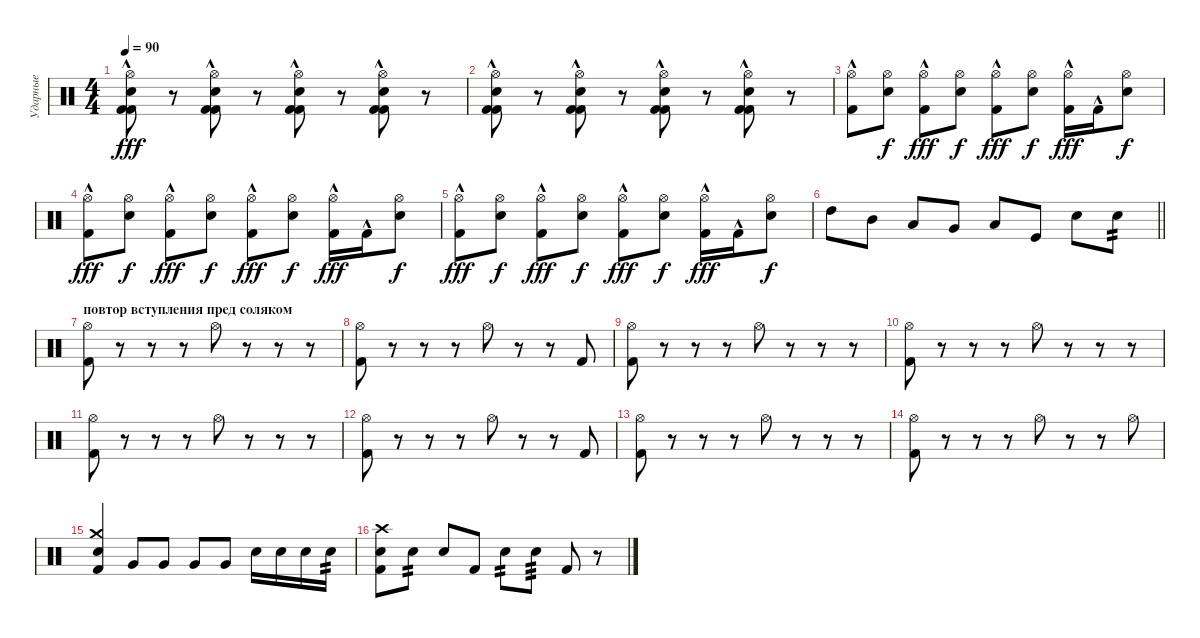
\track ("Ударные" "Ударные") {instrument percussion}
\staff {score}
\articulation defaults
\ts (4 4)
\tempo 90
\clef neutral
\ks c
("Hi-Hat (open)" "Kick (hit) 2"{hac} "Kick (hit) 2" "Snare (hit) 2").8{dy fff} r.8 ("Hi-Hat (open)" "Kick (hit) 2"{hac} "Kick (hit) 2" "Snare (hit) 2").8 r.8 ("Hi-Hat (open)" "Kick (hit) 2"{hac} "Kick (hit) 2" "Snare (hit) 2").8 r.8 ("Hi-Hat (open)" "Kick (hit) 2"{hac} "Kick (hit) 2" "Snare (hit) 2").8 r.8 |
("Hi-Hat (open)" "Kick (hit) 2"{hac} "Kick (hit) 2" "Snare (hit) 2").8 r.8 ("Hi-Hat (open)" "Kick (hit) 2"{hac} "Kick (hit) 2" "Snare (hit) 2").8 r.8 ("Hi-Hat (open)" "Kick (hit) 2"{hac} "Kick (hit) 2" "Snare (hit) 2").8 r.8 ("Hi-Hat (open)" "Kick (hit) 2"{hac} "Kick (hit) 2" "Snare (hit) 2").8 r.8 |
("Hi-Hat (open)" "Kick (hit) 2"{hac}).8 ("Hi-Hat (open)" "Snare (hit) 2").8{dy f} ("Hi-Hat (open)" "Kick (hit) 2"{hac}).8{dy fff} ("Hi-Hat (open)" "Snare (hit) 2").8{dy f} ("Hi-Hat (open)" "Kick (hit) 2"{hac}).8{dy fff} ("Hi-Hat (open)" "Snare (hit) 2").8{dy f} ("Hi-Hat (open)" "Kick (hit) 2"{hac}).16{dy fff} "Kick (hit) 2"{hac}.16 ("Hi-Hat (open)" "Snare (hit) 2").8{dy f} |
("Hi-Hat (open)" "Kick (hit) 2"{hac}).8{dy fff} ("Hi-Hat (open)" "Snare (hit) 2").8{dy f} ("Hi-Hat (open)" "Kick (hit) 2"{hac}).8{dy fff} ("Hi-Hat (open)" "Snare (hit) 2").8{dy f} ("Hi-Hat (open)" "Kick (hit) 2"{hac}).8{dy fff} ("Hi-Hat (open)" "Snare (hit) 2").8{dy f} ("Hi-Hat (open)" "Kick (hit) 2"{hac}).16{dy fff} "Kick (hit) 2"{hac}.16 ("Hi-Hat (open)" "Snare (hit) 2").8{dy f} |
("Hi-Hat (open)" "Kick (hit) 2"{hac}).8{dy fff} ("Hi-Hat (open)" "Snare (hit) 2").8{dy f} ("Hi-Hat (open)" "Kick (hit) 2"{hac}).8{dy fff} ("Hi-Hat (open)" "Snare (hit) 2").8{dy f} ("Hi-Hat (open)" "Kick (hit) 2"{hac}).8{dy fff} ("Hi-Hat (open)" "Snare (hit) 2").8{dy f} ("Hi-Hat (open)" "Kick (hit) 2"{hac}).16{dy fff} "Kick (hit) 2"{hac}.16 ("Hi-Hat (open)" "Snare (hit) 2").8{dy f} |
\barLineRight lightlight "High Tom (hit)".8 "Mid Tom (hit)".8 "Low Tom (hit)".8 "Very Low Tom (hit)".8 "Low Floor Tom (hit)".8 "Kick (hit)".8 "Snare (hit) 2".8 "Snare (hit) 2".8{tp 2}
|
\section ("" "повтор вступления пред соляком")
("Kick (hit) 2" "Hi-Hat (open)").8 r.8 r.8 r.8 "Hi-Hat (open)".8 r.8 r.8 r.8 |
("Kick (hit) 2" "Hi-Hat (open)").8 r.8 r.8 r.8 "Hi-Hat (open)".8 r.8 r.8 "Kick (hit) 2".8 |
("Kick (hit) 2" "Hi-Hat (open)").8 r.8 r.8 r.8 "Hi-Hat (open)".8 r.8 r.8 r.8 |
("Kick (hit) 2" "Hi-Hat (open)").8 r.8 r.8 r.8 "Hi-Hat (open)".8 r.8 r.8 r.8 |
("Kick (hit) 2" "Hi-Hat (open)").8 r.8 r.8 r.8 "Hi-Hat (open)".8 r.8 r.8 r.8 |
("Kick (hit) 2" "Hi-Hat (open)").8 r.8 r.8 r.8 "Hi-Hat (open)".8 r.8 r.8 "Kick (hit) 2".8 |
("Kick (hit) 2" "Hi-Hat (open)").8 r.8 r.8 r.8 "Hi-Hat (open)".8 r.8 r.8 r.8 |
("Kick (hit) 2" "Hi-Hat (open)").8 r.8 r.8 r.8 "Hi-Hat (open)".8 r.8 r.8 "Hi-Hat (open)".8 |
("Crash medium (hit)" "Electric Snare (hit)" "Kick (hit) 2").4 "Very Low Tom (hit)".8 "Very Low Tom (hit)".8 "Very Low Tom (hit)".8 "Very Low Tom (hit)".8 "Snare (hit) 2".16 "Snare (hit) 2".16 "Snare (hit) 2".16 "Snare (hit) 2".16{tp 2} |
("Kick (hit) 2" "Snare (hit) 2" "Crash high (hit)").8 "Electric Snare (hit)".8{tp 2} "Electric Snare (hit)".8 "Kick (hit) 2".8 "Electric Snare (hit)".8{tp 2} "Electric Snare (hit)".8{tp 3} "Kick (hit) 2".8 r.8
